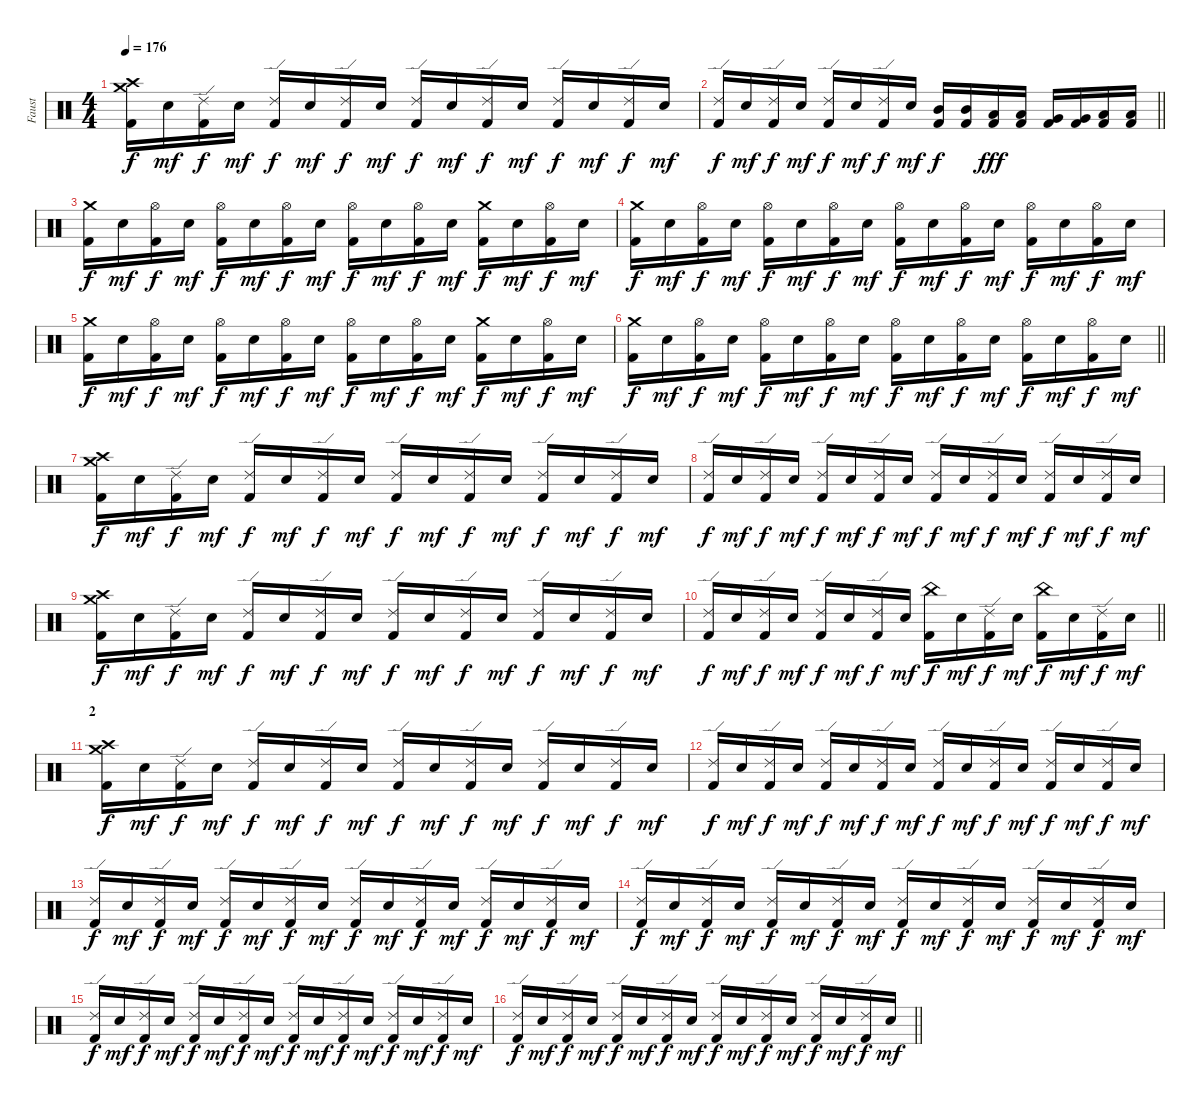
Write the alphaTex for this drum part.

\track ("Faust" "Faust") {instrument percussion}
\staff {score}
\articulation defaults
\ts (4 4)
\tempo 176
\clef neutral
\ks c
("Crash high (hit)" "Crash medium (hit)" "Kick (hit) 2").16{dy f} "Electric Snare (hit)".16{dy mf} ("Ride (edge) 2" "Kick (hit) 2").16{dy f} "Electric Snare (hit)".16{dy mf} ("Ride (edge) 2" "Kick (hit) 2").16{dy f} "Electric Snare (hit)".16{dy mf} ("Ride (edge) 2" "Kick (hit) 2").16{dy f} "Electric Snare (hit)".16{dy mf} ("Ride (edge) 2" "Kick (hit) 2").16{dy f} "Electric Snare (hit)".16{dy mf} ("Ride (edge) 2" "Kick (hit) 2").16{dy f} "Electric Snare (hit)".16{dy mf} ("Ride (edge) 2" "Kick (hit) 2").16{dy f} "Electric Snare (hit)".16{dy mf} ("Ride (edge) 2" "Kick (hit) 2").16{dy f} "Electric Snare (hit)".16{dy mf} |
\barLineRight lightlight
("Ride (edge) 2" "Kick (hit) 2").16{dy f} "Electric Snare (hit)".16{dy mf} ("Ride (edge) 2" "Kick (hit) 2").16{dy f} "Electric Snare (hit)".16{dy mf} ("Ride (edge) 2" "Kick (hit) 2").16{dy f} "Electric Snare (hit)".16{dy mf} ("Ride (edge) 2" "Kick (hit) 2").16{dy f} "Electric Snare (hit)".16{dy mf} ("Mid Tom (hit)" "Kick (hit) 2").16{dy f} ("Mid Tom (hit)" "Kick (hit) 2").16 ("Low Tom (hit)" "Kick (hit) 2").16{dy fff} ("Low Tom (hit)" "Kick (hit) 2").16 ("Very Low Tom (hit)" "Kick (hit) 2").16 ("Very Low Tom (hit)" "Kick (hit) 2").16 ("Low Floor Tom (hit)" "Kick (hit) 2").16 ("Low Floor Tom (hit)" "Kick (hit) 2").16 |
\section ("" "")
("Crash medium (hit)" "Kick (hit) 2").16{dy f} "Electric Snare (hit)".16{dy mf} ("Hi-Hat (open)" "Kick (hit) 2").16{dy f} "Electric Snare (hit)".16{dy mf} ("Hi-Hat (open)" "Kick (hit) 2").16{dy f} "Electric Snare (hit)".16{dy mf} ("Hi-Hat (open)" "Kick (hit) 2").16{dy f} "Electric Snare (hit)".16{dy mf} ("Hi-Hat (open)" "Kick (hit) 2").16{dy f} "Electric Snare (hit)".16{dy mf} ("Hi-Hat (open)" "Kick (hit) 2").16{dy f} "Electric Snare (hit)".16{dy mf} ("Crash medium (hit)" "Kick (hit) 2").16{dy f} "Electric Snare (hit)".16{dy mf} ("Hi-Hat (open)" "Kick (hit) 2").16{dy f} "Electric Snare (hit)".16{dy mf} |
("Crash medium (hit)" "Kick (hit) 2").16{dy f} "Electric Snare (hit)".16{dy mf} ("Hi-Hat (open)" "Kick (hit) 2").16{dy f} "Electric Snare (hit)".16{dy mf} ("Hi-Hat (open)" "Kick (hit) 2").16{dy f} "Electric Snare (hit)".16{dy mf} ("Hi-Hat (open)" "Kick (hit) 2").16{dy f} "Electric Snare (hit)".16{dy mf} ("Hi-Hat (open)" "Kick (hit) 2").16{dy f} "Electric Snare (hit)".16{dy mf} ("Hi-Hat (open)" "Kick (hit) 2").16{dy f} "Electric Snare (hit)".16{dy mf} ("Hi-Hat (open)" "Kick (hit) 2").16{dy f} "Electric Snare (hit)".16{dy mf} ("Hi-Hat (open)" "Kick (hit) 2").16{dy f} "Electric Snare (hit)".16{dy mf} |
("Crash medium (hit)" "Kick (hit) 2").16{dy f} "Electric Snare (hit)".16{dy mf} ("Hi-Hat (open)" "Kick (hit) 2").16{dy f} "Electric Snare (hit)".16{dy mf} ("Hi-Hat (open)" "Kick (hit) 2").16{dy f} "Electric Snare (hit)".16{dy mf} ("Hi-Hat (open)" "Kick (hit) 2").16{dy f} "Electric Snare (hit)".16{dy mf} ("Hi-Hat (open)" "Kick (hit) 2").16{dy f} "Electric Snare (hit)".16{dy mf} ("Hi-Hat (open)" "Kick (hit) 2").16{dy f} "Electric Snare (hit)".16{dy mf} ("Crash medium (hit)" "Kick (hit) 2").16{dy f} "Electric Snare (hit)".16{dy mf} ("Hi-Hat (open)" "Kick (hit) 2").16{dy f} "Electric Snare (hit)".16{dy mf} |
\barLineRight lightlight
("Crash medium (hit)" "Kick (hit) 2").16{dy f} "Electric Snare (hit)".16{dy mf} ("Hi-Hat (open)" "Kick (hit) 2").16{dy f} "Electric Snare (hit)".16{dy mf} ("Hi-Hat (open)" "Kick (hit) 2").16{dy f} "Electric Snare (hit)".16{dy mf} ("Hi-Hat (open)" "Kick (hit) 2").16{dy f} "Electric Snare (hit)".16{dy mf} ("Hi-Hat (open)" "Kick (hit) 2").16{dy f} "Electric Snare (hit)".16{dy mf} ("Hi-Hat (open)" "Kick (hit) 2").16{dy f} "Electric Snare (hit)".16{dy mf} ("Hi-Hat (open)" "Kick (hit) 2").16{dy f} "Electric Snare (hit)".16{dy mf} ("Hi-Hat (open)" "Kick (hit) 2").16{dy f} "Electric Snare (hit)".16{dy mf} |
\section ("" "")
("Crash high (hit)" "Crash medium (hit)" "Kick (hit) 2").16{dy f} "Electric Snare (hit)".16{dy mf} ("Ride (edge) 2" "Kick (hit) 2").16{dy f} "Electric Snare (hit)".16{dy mf} ("Ride (edge) 2" "Kick (hit) 2").16{dy f} "Electric Snare (hit)".16{dy mf} ("Ride (edge) 2" "Kick (hit) 2").16{dy f} "Electric Snare (hit)".16{dy mf} ("Ride (edge) 2" "Kick (hit) 2").16{dy f} "Electric Snare (hit)".16{dy mf} ("Ride (edge) 2" "Kick (hit) 2").16{dy f} "Electric Snare (hit)".16{dy mf} ("Ride (edge) 2" "Kick (hit) 2").16{dy f} "Electric Snare (hit)".16{dy mf} ("Ride (edge) 2" "Kick (hit) 2").16{dy f} "Electric Snare (hit)".16{dy mf} |
("Ride (edge) 2" "Kick (hit) 2").16{dy f} "Electric Snare (hit)".16{dy mf} ("Ride (edge) 2" "Kick (hit) 2").16{dy f} "Electric Snare (hit)".16{dy mf} ("Ride (edge) 2" "Kick (hit) 2").16{dy f} "Electric Snare (hit)".16{dy mf} ("Ride (edge) 2" "Kick (hit) 2").16{dy f} "Electric Snare (hit)".16{dy mf} ("Ride (edge) 2" "Kick (hit) 2").16{dy f} "Electric Snare (hit)".16{dy mf} ("Ride (edge) 2" "Kick (hit) 2").16{dy f} "Electric Snare (hit)".16{dy mf} ("Ride (edge) 2" "Kick (hit) 2").16{dy f} "Electric Snare (hit)".16{dy mf} ("Ride (edge) 2" "Kick (hit) 2").16{dy f} "Electric Snare (hit)".16{dy mf} |
("Crash high (hit)" "Crash medium (hit)" "Kick (hit) 2").16{dy f} "Electric Snare (hit)".16{dy mf} ("Ride (edge) 2" "Kick (hit) 2").16{dy f} "Electric Snare (hit)".16{dy mf} ("Ride (edge) 2" "Kick (hit) 2").16{dy f} "Electric Snare (hit)".16{dy mf} ("Ride (edge) 2" "Kick (hit) 2").16{dy f} "Electric Snare (hit)".16{dy mf} ("Ride (edge) 2" "Kick (hit) 2").16{dy f} "Electric Snare (hit)".16{dy mf} ("Ride (edge) 2" "Kick (hit) 2").16{dy f} "Electric Snare (hit)".16{dy mf} ("Ride (edge) 2" "Kick (hit) 2").16{dy f} "Electric Snare (hit)".16{dy mf} ("Ride (edge) 2" "Kick (hit) 2").16{dy f} "Electric Snare (hit)".16{dy mf} |
\barLineRight lightlight
("Ride (edge) 2" "Kick (hit) 2").16{dy f} "Electric Snare (hit)".16{dy mf} ("Ride (edge) 2" "Kick (hit) 2").16{dy f} "Electric Snare (hit)".16{dy mf} ("Ride (edge) 2" "Kick (hit) 2").16{dy f} "Electric Snare (hit)".16{dy mf} ("Ride (edge) 2" "Kick (hit) 2").16{dy f} "Electric Snare (hit)".16{dy mf} ("China (hit)" "Kick (hit) 2").16{dy f} "Electric Snare (hit)".16{dy mf} ("Ride (edge) 2" "Kick (hit) 2").16{dy f} "Electric Snare (hit)".16{dy mf} ("China (hit)" "Kick (hit) 2").16{dy f} "Electric Snare (hit)".16{dy mf} ("Ride (edge) 2" "Kick (hit) 2").16{dy f} "Electric Snare (hit)".16{dy mf} |
\section ("" "2")
("Crash high (hit)" "Crash medium (hit)" "Kick (hit) 2").16{dy f} "Electric Snare (hit)".16{dy mf} ("Ride (edge) 2" "Kick (hit) 2").16{dy f} "Electric Snare (hit)".16{dy mf} ("Ride (edge) 2" "Kick (hit) 2").16{dy f} "Electric Snare (hit)".16{dy mf} ("Ride (edge) 2" "Kick (hit) 2").16{dy f} "Electric Snare (hit)".16{dy mf} ("Ride (edge) 2" "Kick (hit) 2").16{dy f} "Electric Snare (hit)".16{dy mf} ("Ride (edge) 2" "Kick (hit) 2").16{dy f} "Electric Snare (hit)".16{dy mf} ("Ride (edge) 2" "Kick (hit) 2").16{dy f} "Electric Snare (hit)".16{dy mf} ("Ride (edge) 2" "Kick (hit) 2").16{dy f} "Electric Snare (hit)".16{dy mf} |
("Ride (edge) 2" "Kick (hit) 2").16{dy f} "Electric Snare (hit)".16{dy mf} ("Ride (edge) 2" "Kick (hit) 2").16{dy f} "Electric Snare (hit)".16{dy mf} ("Ride (edge) 2" "Kick (hit) 2").16{dy f} "Electric Snare (hit)".16{dy mf} ("Ride (edge) 2" "Kick (hit) 2").16{dy f} "Electric Snare (hit)".16{dy mf} ("Ride (edge) 2" "Kick (hit) 2").16{dy f} "Electric Snare (hit)".16{dy mf} ("Ride (edge) 2" "Kick (hit) 2").16{dy f} "Electric Snare (hit)".16{dy mf} ("Ride (edge) 2" "Kick (hit) 2").16{dy f} "Electric Snare (hit)".16{dy mf} ("Ride (edge) 2" "Kick (hit) 2").16{dy f} "Electric Snare (hit)".16{dy mf} |
("Ride (edge) 2" "Kick (hit) 2").16{dy f} "Electric Snare (hit)".16{dy mf} ("Ride (edge) 2" "Kick (hit) 2").16{dy f} "Electric Snare (hit)".16{dy mf} ("Ride (edge) 2" "Kick (hit) 2").16{dy f} "Electric Snare (hit)".16{dy mf} ("Ride (edge) 2" "Kick (hit) 2").16{dy f} "Electric Snare (hit)".16{dy mf} ("Ride (edge) 2" "Kick (hit) 2").16{dy f} "Electric Snare (hit)".16{dy mf} ("Ride (edge) 2" "Kick (hit) 2").16{dy f} "Electric Snare (hit)".16{dy mf} ("Ride (edge) 2" "Kick (hit) 2").16{dy f} "Electric Snare (hit)".16{dy mf} ("Ride (edge) 2" "Kick (hit) 2").16{dy f} "Electric Snare (hit)".16{dy mf} |
("Ride (edge) 2" "Kick (hit) 2").16{dy f} "Electric Snare (hit)".16{dy mf} ("Ride (edge) 2" "Kick (hit) 2").16{dy f} "Electric Snare (hit)".16{dy mf} ("Ride (edge) 2" "Kick (hit) 2").16{dy f} "Electric Snare (hit)".16{dy mf} ("Ride (edge) 2" "Kick (hit) 2").16{dy f} "Electric Snare (hit)".16{dy mf} ("Ride (edge) 2" "Kick (hit) 2").16{dy f} "Electric Snare (hit)".16{dy mf} ("Ride (edge) 2" "Kick (hit) 2").16{dy f} "Electric Snare (hit)".16{dy mf} ("Ride (edge) 2" "Kick (hit) 2").16{dy f} "Electric Snare (hit)".16{dy mf} ("Ride (edge) 2" "Kick (hit) 2").16{dy f} "Electric Snare (hit)".16{dy mf} |
("Ride (edge) 2" "Kick (hit) 2").16{dy f} "Electric Snare (hit)".16{dy mf} ("Ride (edge) 2" "Kick (hit) 2").16{dy f} "Electric Snare (hit)".16{dy mf} ("Ride (edge) 2" "Kick (hit) 2").16{dy f} "Electric Snare (hit)".16{dy mf} ("Ride (edge) 2" "Kick (hit) 2").16{dy f} "Electric Snare (hit)".16{dy mf} ("Ride (edge) 2" "Kick (hit) 2").16{dy f} "Electric Snare (hit)".16{dy mf} ("Ride (edge) 2" "Kick (hit) 2").16{dy f} "Electric Snare (hit)".16{dy mf} ("Ride (edge) 2" "Kick (hit) 2").16{dy f} "Electric Snare (hit)".16{dy mf} ("Ride (edge) 2" "Kick (hit) 2").16{dy f} "Electric Snare (hit)".16{dy mf} |
\barLineRight lightlight
("Ride (edge) 2" "Kick (hit) 2").16{dy f} "Electric Snare (hit)".16{dy mf} ("Ride (edge) 2" "Kick (hit) 2").16{dy f} "Electric Snare (hit)".16{dy mf} ("Ride (edge) 2" "Kick (hit) 2").16{dy f} "Electric Snare (hit)".16{dy mf} ("Ride (edge) 2" "Kick (hit) 2").16{dy f} "Electric Snare (hit)".16{dy mf} ("Ride (edge) 2" "Kick (hit) 2").16{dy f} "Electric Snare (hit)".16{dy mf} ("Ride (edge) 2" "Kick (hit) 2").16{dy f} "Electric Snare (hit)".16{dy mf} ("Ride (edge) 2" "Kick (hit) 2").16{dy f} "Electric Snare (hit)".16{dy mf} ("Ride (edge) 2" "Kick (hit) 2").16{dy f} "Electric Snare (hit)".16{dy mf}
